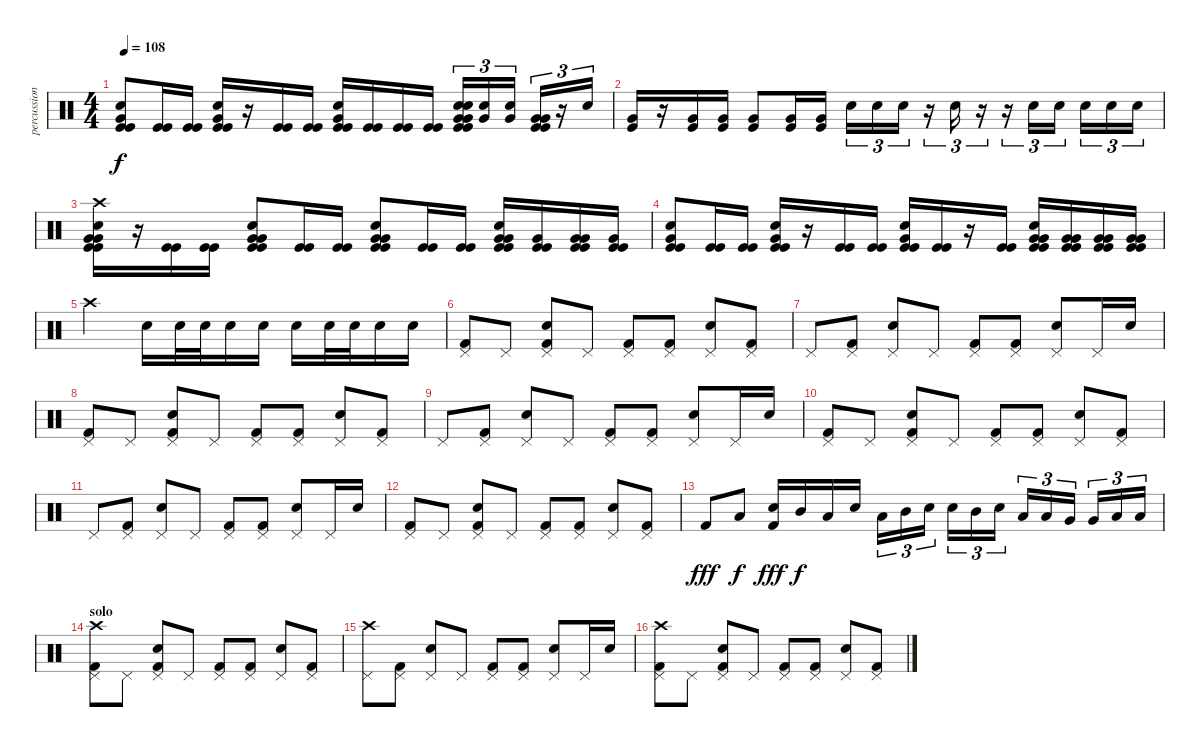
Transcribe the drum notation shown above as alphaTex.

\track ("percussion" "percussion") {instrument percussion}
\staff {score}
\articulation defaults
\ts (4 4)
\tempo 108
\clef neutral
\ks c
("Very Low Tom (hit)" "Kick (hit)" "Kick (hit)" "Snare (hit) 2").8{dy f} ("Kick (hit)" "Kick (hit)").16 ("Kick (hit)" "Kick (hit)").16 ("Very Low Tom (hit)" "Kick (hit)" "Kick (hit)" "Snare (hit) 2").16 r.16 ("Kick (hit)" "Kick (hit)").16 ("Kick (hit)" "Kick (hit)").16 ("Very Low Tom (hit)" "Kick (hit)" "Kick (hit)" "Snare (hit) 2").16 ("Kick (hit)" "Kick (hit)").16 ("Kick (hit)" "Kick (hit)").16 ("Kick (hit)" "Kick (hit)").16 ("Very Low Tom (hit)" "Very Low Tom (hit)" "Kick (hit)" "Kick (hit)" "Snare (hit) 2" "Snare (hit) 2").16{tu (3 2)} ("Very Low Tom (hit)" "Snare (hit) 2").16{tu (3 2)} ("Very Low Tom (hit)" "Snare (hit) 2").16{tu (3 2)} ("Very Low Tom (hit)" "Very Low Tom (hit)" "Kick (hit)" "Kick (hit)").16{tu (3 2)} r.16{tu (3 2)} "Snare (hit) 2".16{tu (3 2)} |
("Kick (hit)" "Very Low Tom (hit)").16 r.16 ("Kick (hit)" "Very Low Tom (hit)").16 ("Kick (hit)" "Very Low Tom (hit)").16 ("Kick (hit)" "Very Low Tom (hit)").8 ("Kick (hit)" "Very Low Tom (hit)").16 ("Kick (hit)" "Very Low Tom (hit)").16 "Snare (hit) 2".16{tu (3 2)} "Snare (hit) 2".16{tu (3 2)} "Snare (hit) 2".16{tu (3 2)} r.16{tu (3 2)} "Snare (hit) 2".16{tu (3 2)} r.16{tu (3 2)} r.16{tu (3 2)} "Snare (hit) 2".16{tu (3 2)} "Snare (hit) 2".16{tu (3 2)} "Snare (hit) 2".16{tu (3 2)} "Snare (hit) 2".16{tu (3 2)} "Snare (hit) 2".16{tu (3 2)} |
("Very Low Tom (hit)" "Very Low Tom (hit)" "Kick (hit)" "Kick (hit)" "Snare (hit) 2" "Crash high (hit)").16 r.16 ("Kick (hit)" "Kick (hit)").16 ("Kick (hit)" "Kick (hit)").16 ("Very Low Tom (hit)" "Very Low Tom (hit)" "Kick (hit)" "Kick (hit)" "Snare (hit) 2").8 ("Kick (hit)" "Kick (hit)").16 ("Kick (hit)" "Kick (hit)").16 ("Very Low Tom (hit)" "Very Low Tom (hit)" "Kick (hit)" "Kick (hit)" "Snare (hit) 2").8 ("Kick (hit)" "Kick (hit)").16 ("Kick (hit)" "Kick (hit)").16 ("Very Low Tom (hit)" "Very Low Tom (hit)" "Kick (hit)" "Kick (hit)" "Snare (hit) 2").16 ("Very Low Tom (hit)" "Kick (hit)" "Kick (hit)").16 ("Very Low Tom (hit)" "Very Low Tom (hit)" "Kick (hit)" "Kick (hit)").16 ("Very Low Tom (hit)" "Kick (hit)" "Kick (hit)").16 |
("Very Low Tom (hit)" "Kick (hit)" "Kick (hit)" "Snare (hit) 2").8 ("Kick (hit)" "Kick (hit)").16 ("Kick (hit)" "Kick (hit)").16 ("Very Low Tom (hit)" "Kick (hit)" "Kick (hit)" "Snare (hit) 2").16 r.16 ("Kick (hit)" "Kick (hit)").16 ("Kick (hit)" "Kick (hit)").16 ("Very Low Tom (hit)" "Kick (hit)" "Kick (hit)" "Snare (hit) 2").16 ("Kick (hit)" "Kick (hit)").16 r.16 ("Kick (hit)" "Kick (hit)").16 ("Very Low Tom (hit)" "Very Low Tom (hit)" "Kick (hit)" "Kick (hit)" "Snare (hit) 2").16 ("Very Low Tom (hit)" "Very Low Tom (hit)" "Kick (hit)" "Kick (hit)").16 ("Very Low Tom (hit)" "Very Low Tom (hit)" "Kick (hit)" "Kick (hit)").16 ("Very Low Tom (hit)" "Very Low Tom (hit)" "Kick (hit)" "Kick (hit)").16 |
"Crash high (hit)".2 "Snare (hit) 2".16 "Snare (hit) 2".32 "Snare (hit) 2".32 "Snare (hit) 2".16 "Snare (hit) 2".16 "Snare (hit) 2".16 "Snare (hit) 2".32 "Snare (hit) 2".32 "Snare (hit) 2".16 "Snare (hit) 2".16 |
("Pedal Hi-Hat (hit)" "Kick (hit) 2").8 "Pedal Hi-Hat (hit)".8 ("Pedal Hi-Hat (hit)" "Kick (hit) 2" "Snare (hit) 2").8 "Pedal Hi-Hat (hit)".8 ("Pedal Hi-Hat (hit)" "Kick (hit) 2").8 ("Pedal Hi-Hat (hit)" "Kick (hit) 2").8 ("Pedal Hi-Hat (hit)" "Snare (hit) 2").8 ("Pedal Hi-Hat (hit)" "Kick (hit) 2").8 |
"Pedal Hi-Hat (hit)".8 ("Pedal Hi-Hat (hit)" "Kick (hit) 2").8 ("Pedal Hi-Hat (hit)" "Snare (hit) 2").8 "Pedal Hi-Hat (hit)".8 ("Pedal Hi-Hat (hit)" "Kick (hit) 2").8 ("Pedal Hi-Hat (hit)" "Kick (hit) 2").8 ("Pedal Hi-Hat (hit)" "Snare (hit) 2").8 "Pedal Hi-Hat (hit)".16 "Snare (hit) 2".16 |
("Pedal Hi-Hat (hit)" "Kick (hit) 2").8 "Pedal Hi-Hat (hit)".8 ("Pedal Hi-Hat (hit)" "Kick (hit) 2" "Snare (hit) 2").8 "Pedal Hi-Hat (hit)".8 ("Pedal Hi-Hat (hit)" "Kick (hit) 2").8 ("Pedal Hi-Hat (hit)" "Kick (hit) 2").8 ("Pedal Hi-Hat (hit)" "Snare (hit) 2").8 ("Pedal Hi-Hat (hit)" "Kick (hit) 2").8 |
"Pedal Hi-Hat (hit)".8 ("Pedal Hi-Hat (hit)" "Kick (hit) 2").8 ("Pedal Hi-Hat (hit)" "Snare (hit) 2").8 "Pedal Hi-Hat (hit)".8 ("Pedal Hi-Hat (hit)" "Kick (hit) 2").8 ("Pedal Hi-Hat (hit)" "Kick (hit) 2").8 ("Pedal Hi-Hat (hit)" "Snare (hit) 2").8 "Pedal Hi-Hat (hit)".16 "Snare (hit) 2".16 |
("Pedal Hi-Hat (hit)" "Kick (hit) 2").8 "Pedal Hi-Hat (hit)".8 ("Pedal Hi-Hat (hit)" "Kick (hit) 2" "Snare (hit) 2").8 "Pedal Hi-Hat (hit)".8 ("Pedal Hi-Hat (hit)" "Kick (hit) 2").8 ("Pedal Hi-Hat (hit)" "Kick (hit) 2").8 ("Pedal Hi-Hat (hit)" "Snare (hit) 2").8 ("Pedal Hi-Hat (hit)" "Kick (hit) 2").8 |
"Pedal Hi-Hat (hit)".8 ("Pedal Hi-Hat (hit)" "Kick (hit) 2").8 ("Pedal Hi-Hat (hit)" "Snare (hit) 2").8 "Pedal Hi-Hat (hit)".8 ("Pedal Hi-Hat (hit)" "Kick (hit) 2").8 ("Pedal Hi-Hat (hit)" "Kick (hit) 2").8 ("Pedal Hi-Hat (hit)" "Snare (hit) 2").8 "Pedal Hi-Hat (hit)".16 "Snare (hit) 2".16 |
("Pedal Hi-Hat (hit)" "Kick (hit) 2").8 "Pedal Hi-Hat (hit)".8 ("Pedal Hi-Hat (hit)" "Kick (hit) 2" "Snare (hit) 2").8 "Pedal Hi-Hat (hit)".8 ("Pedal Hi-Hat (hit)" "Kick (hit) 2").8 ("Pedal Hi-Hat (hit)" "Kick (hit) 2").8 ("Pedal Hi-Hat (hit)" "Snare (hit) 2").8 ("Pedal Hi-Hat (hit)" "Kick (hit) 2").8 |
"Kick (hit) 2".8{dy fff} "Low Tom (hit)".8{dy f} ("Snare (hit) 2" "Kick (hit) 2").16{dy fff} "Mid Tom (hit)".16{dy f} "Low Tom (hit)".16 "Snare (hit) 2".16 "Low Tom (hit)".16{tu (3 2)} "Mid Tom (hit)".16{tu (3 2)} "Snare (hit) 2".16{tu (3 2)} "Snare (hit) 2".16{tu (3 2)} "Mid Tom (hit)".16{tu (3 2)} "Snare (hit) 2".16{tu (3 2)} "Low Tom (hit)".16{tu (3 2)} "Low Tom (hit)".16{tu (3 2)} "Very Low Tom (hit)".16{tu (3 2)} "Very Low Tom (hit)".16{tu (3 2)} "Low Floor Tom (hit)".16{tu (3 2)} "Low Floor Tom (hit)".16{tu (3 2)} |
\section ("" "solo")
("Crash high (hit)" "Pedal Hi-Hat (hit)" "Kick (hit) 2").8 "Pedal Hi-Hat (hit)".8 ("Pedal Hi-Hat (hit)" "Kick (hit) 2" "Snare (hit) 2").8 "Pedal Hi-Hat (hit)".8 ("Pedal Hi-Hat (hit)" "Kick (hit) 2").8 ("Pedal Hi-Hat (hit)" "Kick (hit) 2").8 ("Pedal Hi-Hat (hit)" "Snare (hit) 2").8 ("Pedal Hi-Hat (hit)" "Kick (hit) 2").8 |
("Crash high (hit)" "Pedal Hi-Hat (hit)").8 ("Pedal Hi-Hat (hit)" "Kick (hit) 2").8 ("Pedal Hi-Hat (hit)" "Snare (hit) 2").8 "Pedal Hi-Hat (hit)".8 ("Pedal Hi-Hat (hit)" "Kick (hit) 2").8 ("Pedal Hi-Hat (hit)" "Kick (hit) 2").8 ("Pedal Hi-Hat (hit)" "Snare (hit) 2").8 "Pedal Hi-Hat (hit)".16 "Snare (hit) 2".16 |
("Crash high (hit)" "Pedal Hi-Hat (hit)" "Kick (hit) 2").8 "Pedal Hi-Hat (hit)".8 ("Pedal Hi-Hat (hit)" "Kick (hit) 2" "Snare (hit) 2").8 "Pedal Hi-Hat (hit)".8 ("Pedal Hi-Hat (hit)" "Kick (hit) 2").8 ("Pedal Hi-Hat (hit)" "Kick (hit) 2").8 ("Pedal Hi-Hat (hit)" "Snare (hit) 2").8 ("Pedal Hi-Hat (hit)" "Kick (hit) 2").8
